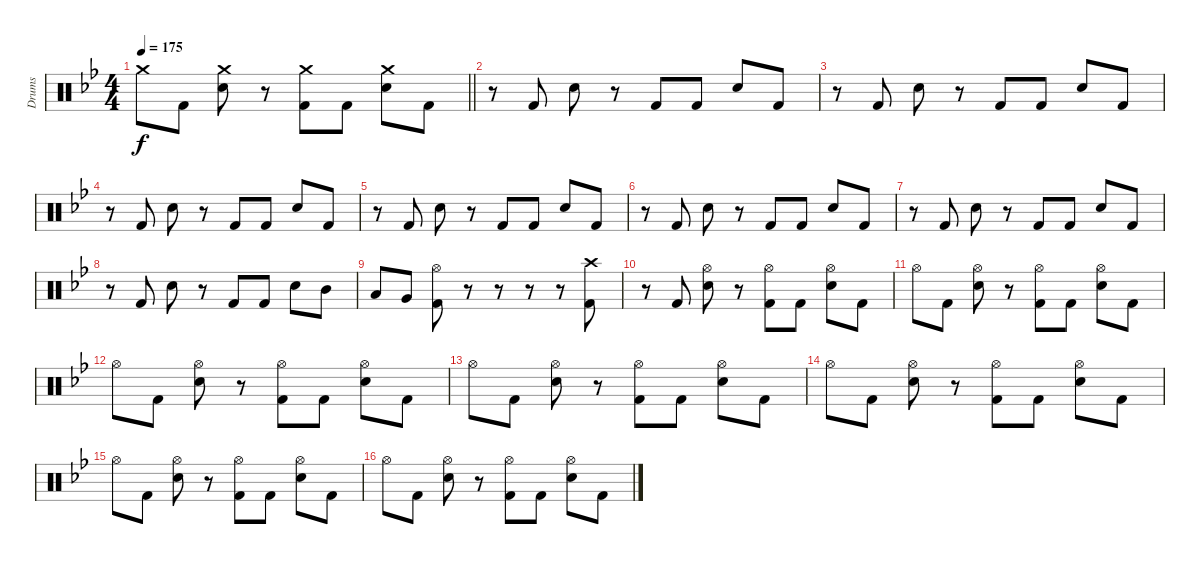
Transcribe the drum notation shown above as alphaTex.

\track ("Drums" "Drums") {instrument percussion}
\staff {score}
\articulation defaults
\ts (4 4)
\tempo 175
\clef neutral
\barLineRight lightlight
\ks bb "Crash medium (hit)".8{dy f} "Kick (hit) 2".8
("Crash medium (hit)" "Electric Snare (hit)").8 r.8 ("Crash medium (hit)" "Kick (hit) 2").8 "Kick (hit) 2".8 ("Crash medium (hit)" "Electric Snare (hit)").8 "Kick (hit) 2".8 |
r.8 "Kick (hit) 2".8 "Electric Snare (hit)".8 r.8 "Kick (hit) 2".8 "Kick (hit) 2".8 "Electric Snare (hit)".8 "Kick (hit) 2".8 |
r.8 "Kick (hit) 2".8 "Electric Snare (hit)".8 r.8 "Kick (hit) 2".8 "Kick (hit) 2".8 "Electric Snare (hit)".8 "Kick (hit) 2".8 |
r.8 "Kick (hit) 2".8 "Electric Snare (hit)".8 r.8 "Kick (hit) 2".8 "Kick (hit) 2".8 "Electric Snare (hit)".8 "Kick (hit) 2".8 |
r.8 "Kick (hit) 2".8 "Electric Snare (hit)".8 r.8 "Kick (hit) 2".8 "Kick (hit) 2".8 "Electric Snare (hit)".8 "Kick (hit) 2".8 |
r.8 "Kick (hit) 2".8 "Electric Snare (hit)".8 r.8 "Kick (hit) 2".8 "Kick (hit) 2".8 "Electric Snare (hit)".8 "Kick (hit) 2".8 |
r.8 "Kick (hit) 2".8 "Electric Snare (hit)".8 r.8 "Kick (hit) 2".8 "Kick (hit) 2".8 "Electric Snare (hit)".8 "Kick (hit) 2".8 |
r.8 "Kick (hit) 2".8 "Electric Snare (hit)".8 r.8 "Kick (hit) 2".8 "Kick (hit) 2".8 "Electric Snare (hit)".8 "Mid Tom (hit)".8 |
"Low Tom (hit)".8 "Very Low Tom (hit)".8 ("Hi-Hat (open)" "Kick (hit) 2").8 r.8 r.8 r.8 r.8 ("Crash high (hit)" "Kick (hit) 2").8 |
r.8 "Kick (hit) 2".8 ("Hi-Hat (open)" "Electric Snare (hit)").8 r.8 ("Hi-Hat (open)" "Kick (hit) 2").8 "Kick (hit) 2".8 ("Hi-Hat (open)" "Electric Snare (hit)").8 "Kick (hit) 2".8 |
"Hi-Hat (open)".8 "Kick (hit) 2".8 ("Hi-Hat (open)" "Electric Snare (hit)").8 r.8 ("Hi-Hat (open)" "Kick (hit) 2").8 "Kick (hit) 2".8 ("Hi-Hat (open)" "Electric Snare (hit)").8 "Kick (hit) 2".8 |
"Hi-Hat (open)".8 "Kick (hit) 2".8 ("Hi-Hat (open)" "Electric Snare (hit)").8 r.8 ("Hi-Hat (open)" "Kick (hit) 2").8 "Kick (hit) 2".8 ("Hi-Hat (open)" "Electric Snare (hit)").8 "Kick (hit) 2".8 |
"Hi-Hat (open)".8 "Kick (hit) 2".8 ("Hi-Hat (open)" "Electric Snare (hit)").8 r.8 ("Hi-Hat (open)" "Kick (hit) 2").8 "Kick (hit) 2".8 ("Hi-Hat (open)" "Electric Snare (hit)").8 "Kick (hit) 2".8 |
"Hi-Hat (open)".8 "Kick (hit) 2".8 ("Hi-Hat (open)" "Electric Snare (hit)").8 r.8 ("Hi-Hat (open)" "Kick (hit) 2").8 "Kick (hit) 2".8 ("Hi-Hat (open)" "Electric Snare (hit)").8 "Kick (hit) 2".8 |
"Hi-Hat (open)".8 "Kick (hit) 2".8 ("Hi-Hat (open)" "Electric Snare (hit)").8 r.8 ("Hi-Hat (open)" "Kick (hit) 2").8 "Kick (hit) 2".8 ("Hi-Hat (open)" "Electric Snare (hit)").8 "Kick (hit) 2".8 |
"Hi-Hat (open)".8 "Kick (hit) 2".8 ("Hi-Hat (open)" "Electric Snare (hit)").8 r.8 ("Hi-Hat (open)" "Kick (hit) 2").8 "Kick (hit) 2".8 ("Hi-Hat (open)" "Electric Snare (hit)").8 "Kick (hit) 2".8
